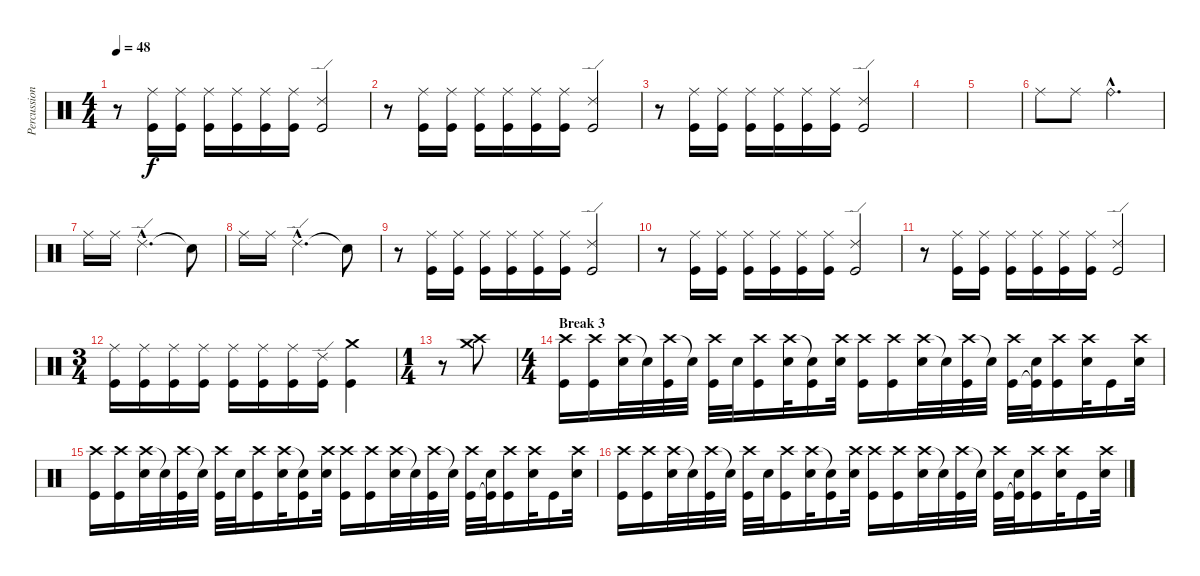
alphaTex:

\track ("Percussions" "Percussion") {instrument percussion}
\staff {score}
\articulation defaults
\ts (4 4)
\tempo 48
\clef neutral
\ks c
r.8{dy f} ("Ride (middle)" "Kick (hit)").16 ("Ride (middle)" "Kick (hit)").16 ("Ride (middle)" "Kick (hit)").16 ("Ride (middle)" "Kick (hit)").16 ("Ride (middle)" "Kick (hit)").16 ("Ride (middle)" "Kick (hit)").16 ("Ride (edge) 2" "Kick (hit)").2 |
r.8 ("Ride (middle)" "Kick (hit)").16 ("Ride (middle)" "Kick (hit)").16 ("Ride (middle)" "Kick (hit)").16 ("Ride (middle)" "Kick (hit)").16 ("Ride (middle)" "Kick (hit)").16 ("Ride (middle)" "Kick (hit)").16 ("Ride (edge) 2" "Kick (hit)").2 |
r.8 ("Ride (middle)" "Kick (hit)").16 ("Ride (middle)" "Kick (hit)").16 ("Ride (middle)" "Kick (hit)").16 ("Ride (middle)" "Kick (hit)").16 ("Ride (middle)" "Kick (hit)").16 ("Ride (middle)" "Kick (hit)").16 ("Ride (edge) 2" "Kick (hit)").2 |
|
|
"Ride (middle)".8 "Ride (middle)".8 "Ride (bell)"{hac}.2{d} |
"Ride (middle)".16 "Ride (middle)".16 "Ride (edge) 2"{hac}.2{d} "Snare (hit)"{t}.8 |
"Ride (middle)".16 "Ride (middle)".16 "Ride (edge) 2"{hac}.2{d} "Snare (hit)"{t}.8 |
r.8 ("Ride (middle)" "Kick (hit)").16 ("Ride (middle)" "Kick (hit)").16 ("Ride (middle)" "Kick (hit)").16 ("Ride (middle)" "Kick (hit)").16 ("Ride (middle)" "Kick (hit)").16 ("Ride (middle)" "Kick (hit)").16 ("Ride (edge) 2" "Kick (hit)").2 |
r.8 ("Ride (middle)" "Kick (hit)").16 ("Ride (middle)" "Kick (hit)").16 ("Ride (middle)" "Kick (hit)").16 ("Ride (middle)" "Kick (hit)").16 ("Ride (middle)" "Kick (hit)").16 ("Ride (middle)" "Kick (hit)").16 ("Ride (edge) 2" "Kick (hit)").2 |
r.8 ("Ride (middle)" "Kick (hit)").16 ("Ride (middle)" "Kick (hit)").16 ("Ride (middle)" "Kick (hit)").16 ("Ride (middle)" "Kick (hit)").16 ("Ride (middle)" "Kick (hit)").16 ("Ride (middle)" "Kick (hit)").16 ("Ride (edge) 2" "Kick (hit)").2 |
\ts (3 4)
("Ride (middle)" "Kick (hit)").16 ("Ride (middle)" "Kick (hit)").16 ("Ride (middle)" "Kick (hit)").16 ("Ride (middle)" "Kick (hit)").16 ("Ride (middle)" "Kick (hit)").16 ("Ride (middle)" "Kick (hit)").16 ("Ride (middle)" "Kick (hit)").16 ("Ride (edge) 2" "Kick (hit)").16 ("Crash medium (hit)" "Kick (hit)").4 |
\ts (1 4)
r.8 ("Crash high (hit)" "Crash medium (hit)").8 |
\ts (4 4)
\section ("" "Break 3")
("Crash high (hit)" "Kick (hit)").16 ("Crash high (hit)" "Kick (hit)").16 ("Crash high (hit)" "Electric Snare (hit)").32 "Snare (hit)"{t}.32 ("Crash high (hit)" "Kick (hit)").32 "Snare (hit)"{t}.32 ("Crash high (hit)" "Kick (hit)").32 "Electric Snare (hit)".32 ("Crash high (hit)" "Kick (hit)").16 ("Crash high (hit)" "Electric Snare (hit)").32 ("Snare (hit)"{t} "Kick (hit)").16 ("Crash high (hit)" "Electric Snare (hit)").32 ("Crash high (hit)" "Kick (hit)").16 ("Crash high (hit)" "Kick (hit)").16 ("Crash high (hit)" "Electric Snare (hit)").32 "Snare (hit)"{t}.32 ("Crash high (hit)" "Kick (hit)").32 "Snare (hit)"{t}.32 ("Crash high (hit)" "Kick (hit)").32 ("Electric Snare (hit)" "Kick (hit)"{t}).32 ("Crash high (hit)" "Kick (hit)").16 ("Crash high (hit)" "Electric Snare (hit)").32 "Kick (hit)".16 ("Crash high (hit)" "Electric Snare (hit)").32 |
("Crash high (hit)" "Kick (hit)").16 ("Crash high (hit)" "Kick (hit)").16 ("Crash high (hit)" "Electric Snare (hit)").32 "Snare (hit)"{t}.32 ("Crash high (hit)" "Kick (hit)").32 "Snare (hit)"{t}.32 ("Crash high (hit)" "Kick (hit)").32 "Electric Snare (hit)".32 ("Crash high (hit)" "Kick (hit)").16 ("Crash high (hit)" "Electric Snare (hit)").32 ("Snare (hit)"{t} "Kick (hit)").16 ("Crash high (hit)" "Electric Snare (hit)").32 ("Crash high (hit)" "Kick (hit)").16 ("Crash high (hit)" "Kick (hit)").16 ("Crash high (hit)" "Electric Snare (hit)").32 "Snare (hit)"{t}.32 ("Crash high (hit)" "Kick (hit)").32 "Snare (hit)"{t}.32 ("Crash high (hit)" "Kick (hit)").32 ("Electric Snare (hit)" "Kick (hit)"{t}).32 ("Crash high (hit)" "Kick (hit)").16 ("Crash high (hit)" "Electric Snare (hit)").32 "Kick (hit)".16 ("Crash high (hit)" "Electric Snare (hit)").32 |
("Crash high (hit)" "Kick (hit)").16 ("Crash high (hit)" "Kick (hit)").16 ("Crash high (hit)" "Electric Snare (hit)").32 "Snare (hit)"{t}.32 ("Crash high (hit)" "Kick (hit)").32 "Snare (hit)"{t}.32 ("Crash high (hit)" "Kick (hit)").32 "Electric Snare (hit)".32 ("Crash high (hit)" "Kick (hit)").16 ("Crash high (hit)" "Electric Snare (hit)").32 ("Snare (hit)"{t} "Kick (hit)").16 ("Crash high (hit)" "Electric Snare (hit)").32 ("Crash high (hit)" "Kick (hit)").16 ("Crash high (hit)" "Kick (hit)").16 ("Crash high (hit)" "Electric Snare (hit)").32 "Snare (hit)"{t}.32 ("Crash high (hit)" "Kick (hit)").32 "Snare (hit)"{t}.32 ("Crash high (hit)" "Kick (hit)").32 ("Electric Snare (hit)" "Kick (hit)"{t}).32 ("Crash high (hit)" "Kick (hit)").16 ("Crash high (hit)" "Electric Snare (hit)").32 "Kick (hit)".16 ("Crash high (hit)" "Electric Snare (hit)").32
